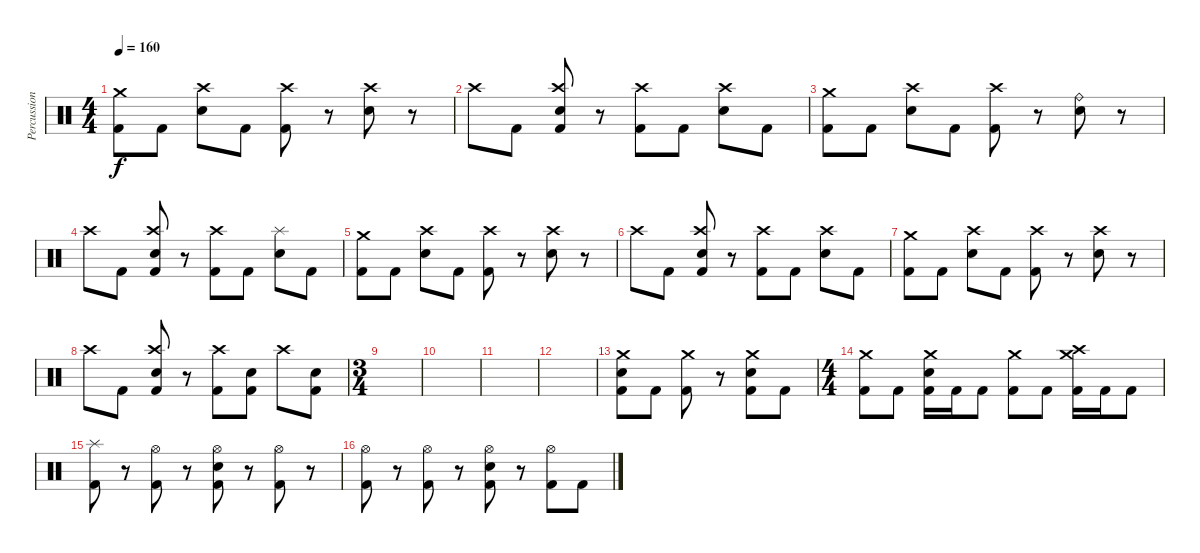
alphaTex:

\track ("Percussion" "Percussion") {instrument percussion}
\staff {score}
\articulation defaults
\ts (4 4)
\tempo 160
\clef neutral
\ks c
("Crash medium (hit)" "Kick (hit) 2").8{dy f} "Kick (hit) 2".8 ("Crash high (hit)" "Electric Snare (hit)").8 "Kick (hit) 2".8 ("Crash high (hit)" "Kick (hit) 2").8 r.8 ("Crash high (hit)" "Electric Snare (hit)").8 r.8 |
"Crash high (hit)".8 "Kick (hit) 2".8 ("Crash high (hit)" "Electric Snare (hit)" "Kick (hit) 2").8 r.8 ("Crash high (hit)" "Kick (hit) 2").8 "Kick (hit) 2".8 ("Crash high (hit)" "Electric Snare (hit)").8 "Kick (hit) 2".8 |
("Crash medium (hit)" "Kick (hit) 2").8 "Kick (hit) 2".8 ("Crash high (hit)" "Electric Snare (hit)").8 "Kick (hit) 2".8 ("Crash high (hit)" "Kick (hit) 2").8 r.8 ("Ride (bell)" "Electric Snare (hit)").8 r.8 |
"Crash high (hit)".8 "Kick (hit) 2".8 ("Crash high (hit)" "Electric Snare (hit)" "Kick (hit) 2").8 r.8 ("Crash high (hit)" "Kick (hit) 2").8 "Kick (hit) 2".8 ("Splash (hit)" "Electric Snare (hit)").8 "Kick (hit) 2".8 |
("Crash medium (hit)" "Kick (hit) 2").8 "Kick (hit) 2".8 ("Crash high (hit)" "Electric Snare (hit)").8 "Kick (hit) 2".8 ("Crash high (hit)" "Kick (hit) 2").8 r.8 ("Crash high (hit)" "Electric Snare (hit)").8 r.8 |
"Crash high (hit)".8 "Kick (hit) 2".8 ("Crash high (hit)" "Electric Snare (hit)" "Kick (hit) 2").8 r.8 ("Crash high (hit)" "Kick (hit) 2").8 "Kick (hit) 2".8 ("Crash high (hit)" "Electric Snare (hit)").8 "Kick (hit) 2".8 |
("Crash medium (hit)" "Kick (hit) 2").8 "Kick (hit) 2".8 ("Crash high (hit)" "Electric Snare (hit)").8 "Kick (hit) 2".8 ("Crash high (hit)" "Kick (hit) 2").8 r.8 ("Crash high (hit)" "Electric Snare (hit)").8 r.8 |
"Crash high (hit)".8 "Kick (hit) 2".8 ("Crash high (hit)" "Electric Snare (hit)" "Kick (hit) 2").8 r.8 ("Crash high (hit)" "Kick (hit) 2").8 ("Electric Snare (hit)" "Kick (hit) 2").8 "Crash high (hit)".8 ("Electric Snare (hit)" "Kick (hit) 2").8 |
\ts (3 4)
|
|
|
|
("Crash medium (hit)" "Electric Snare (hit)" "Kick (hit) 2").8 "Kick (hit) 2".8 ("Crash medium (hit)" "Kick (hit) 2").8 r.8 ("Crash medium (hit)" "Electric Snare (hit)" "Kick (hit) 2").8 "Kick (hit) 2".8 |
\ts (4 4)
("Crash medium (hit)" "Kick (hit) 2").8 "Kick (hit) 2".8 ("Crash medium (hit)" "Electric Snare (hit)" "Kick (hit) 2").16 "Kick (hit) 2".16 "Kick (hit) 2".8 ("Crash medium (hit)" "Kick (hit) 2").8 "Kick (hit) 2".8 ("Crash medium (hit)" "Crash high (hit)" "Kick (hit) 2").16 "Kick (hit) 2".16 "Kick (hit) 2".8 |
("Splash (hit)" "Kick (hit) 2").8 r.8 ("Hi-Hat (open)" "Kick (hit) 2").8 r.8 ("Hi-Hat (open)" "Electric Snare (hit)" "Kick (hit) 2").8 r.8 ("Hi-Hat (open)" "Kick (hit) 2").8 r.8 |
("Hi-Hat (open)" "Kick (hit) 2").8 r.8 ("Hi-Hat (open)" "Kick (hit) 2").8 r.8 ("Hi-Hat (open)" "Electric Snare (hit)" "Kick (hit) 2").8 r.8 ("Hi-Hat (open)" "Kick (hit) 2").8 "Kick (hit) 2".8
